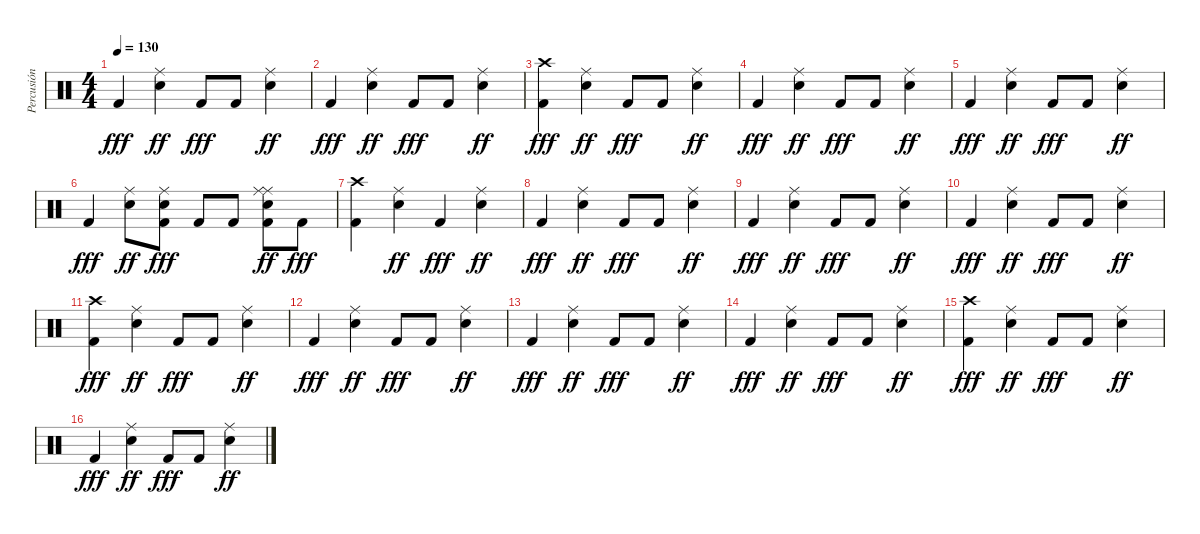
\track ("Percusión" "Percusión") {instrument percussion}
\staff {score}
\articulation defaults
\ts (4 4)
\tempo 130
\clef neutral
\ks c "Kick (hit) 2".4{dy fff}
("Snare (hit) 2" "Ride (middle)").4{dy ff} "Kick (hit) 2".8{dy fff} "Kick (hit) 2".8 ("Snare (hit) 2" "Ride (middle)").4{dy ff} |
"Kick (hit) 2".4{dy fff} ("Snare (hit) 2" "Ride (middle)").4{dy ff} "Kick (hit) 2".8{dy fff} "Kick (hit) 2".8 ("Snare (hit) 2" "Ride (middle)").4{dy ff} |
("Kick (hit) 2" "Crash high (hit)").4{dy fff} ("Snare (hit) 2" "Ride (middle)").4{dy ff} "Kick (hit) 2".8{dy fff} "Kick (hit) 2".8 ("Snare (hit) 2" "Ride (middle)").4{dy ff} |
"Kick (hit) 2".4{dy fff} ("Snare (hit) 2" "Ride (middle)").4{dy ff} "Kick (hit) 2".8{dy fff} "Kick (hit) 2".8 ("Snare (hit) 2" "Ride (middle)").4{dy ff} |
"Kick (hit) 2".4{dy fff} ("Snare (hit) 2" "Ride (middle)").4{dy ff} "Kick (hit) 2".8{dy fff} "Kick (hit) 2".8 ("Snare (hit) 2" "Ride (middle)").4{dy ff} |
"Kick (hit) 2".4{dy fff} ("Snare (hit) 2" "Ride (middle)").8{dy ff} ("Kick (hit) 2" "Ride (middle)" "Snare (hit) 2").8{dy fff} "Kick (hit) 2".8 "Kick (hit) 2".8 ("Kick (hit) 2" "Ride (middle)" "Snare (hit) 2" "Ride (middle)").8{dy ff} "Kick (hit) 2".8{dy fff} |
("Kick (hit) 2" "Crash high (hit)").4 ("Snare (hit) 2" "Ride (middle)").4{dy ff} "Kick (hit) 2".4{dy fff} ("Snare (hit) 2" "Ride (middle)").4{dy ff} |
"Kick (hit) 2".4{dy fff} ("Snare (hit) 2" "Ride (middle)").4{dy ff} "Kick (hit) 2".8{dy fff} "Kick (hit) 2".8 ("Snare (hit) 2" "Ride (middle)").4{dy ff} |
"Kick (hit) 2".4{dy fff} ("Snare (hit) 2" "Ride (middle)").4{dy ff} "Kick (hit) 2".8{dy fff} "Kick (hit) 2".8 ("Snare (hit) 2" "Ride (middle)").4{dy ff} |
"Kick (hit) 2".4{dy fff} ("Snare (hit) 2" "Ride (middle)").4{dy ff} "Kick (hit) 2".8{dy fff} "Kick (hit) 2".8 ("Snare (hit) 2" "Ride (middle)").4{dy ff} |
("Kick (hit) 2" "Crash high (hit)").4{dy fff} ("Snare (hit) 2" "Ride (middle)").4{dy ff} "Kick (hit) 2".8{dy fff} "Kick (hit) 2".8 ("Snare (hit) 2" "Ride (middle)").4{dy ff} |
"Kick (hit) 2".4{dy fff} ("Snare (hit) 2" "Ride (middle)").4{dy ff} "Kick (hit) 2".8{dy fff} "Kick (hit) 2".8 ("Snare (hit) 2" "Ride (middle)").4{dy ff} |
"Kick (hit) 2".4{dy fff} ("Snare (hit) 2" "Ride (middle)").4{dy ff} "Kick (hit) 2".8{dy fff} "Kick (hit) 2".8 ("Snare (hit) 2" "Ride (middle)").4{dy ff} |
"Kick (hit) 2".4{dy fff} ("Snare (hit) 2" "Ride (middle)").4{dy ff} "Kick (hit) 2".8{dy fff} "Kick (hit) 2".8 ("Snare (hit) 2" "Ride (middle)").4{dy ff} |
("Kick (hit) 2" "Crash high (hit)").4{dy fff} ("Snare (hit) 2" "Ride (middle)").4{dy ff} "Kick (hit) 2".8{dy fff} "Kick (hit) 2".8 ("Snare (hit) 2" "Ride (middle)").4{dy ff} |
"Kick (hit) 2".4{dy fff} ("Snare (hit) 2" "Ride (middle)").4{dy ff} "Kick (hit) 2".8{dy fff} "Kick (hit) 2".8 ("Snare (hit) 2" "Ride (middle)").4{dy ff}
